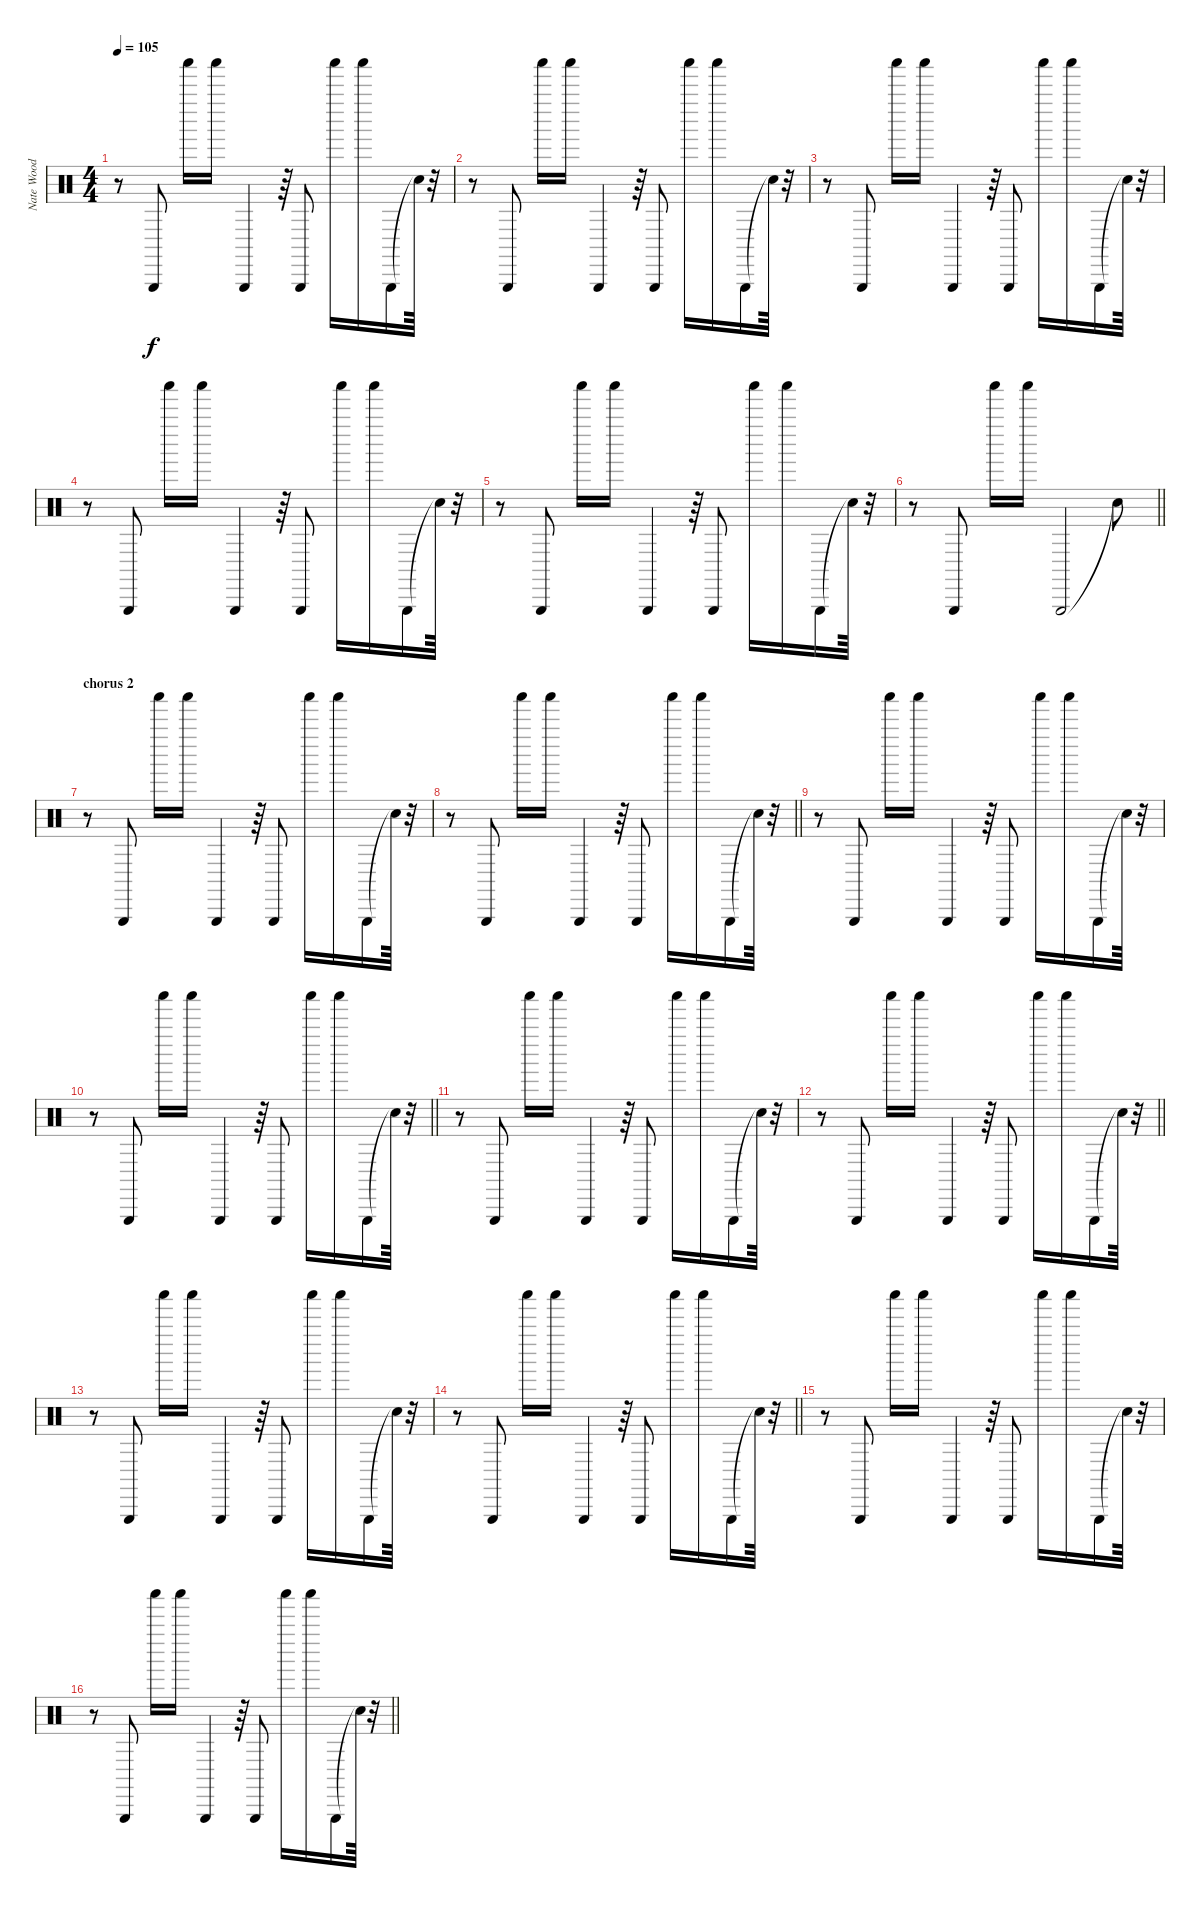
\track ("Nate Wood " "Nate Wood ") {instrument percussion}
\staff {score}
\articulation defaults
\ts (4 4)
\tempo 105
\clef neutral
\ks c
r.8{dy f} "Triangle (hit)".8 "Shaker (hit)".16 "Shaker (hit)".16 "Triangle (hit)".4 r.64 "Triangle (hit)".8 "Shaker (hit)".16 "Shaker (hit)".16 "Triangle (hit)".16 "Snare (hit)"{t}.64 r.32 |
r.8 "Triangle (hit)".8 "Shaker (hit)".16 "Shaker (hit)".16 "Triangle (hit)".4 r.64 "Triangle (hit)".8 "Shaker (hit)".16 "Shaker (hit)".16 "Triangle (hit)".16 "Snare (hit)"{t}.64 r.32 |
r.8 "Triangle (hit)".8 "Shaker (hit)".16 "Shaker (hit)".16 "Triangle (hit)".4 r.64 "Triangle (hit)".8 "Shaker (hit)".16 "Shaker (hit)".16 "Triangle (hit)".16 "Snare (hit)"{t}.64 r.32 |
r.8 "Triangle (hit)".8 "Shaker (hit)".16 "Shaker (hit)".16 "Triangle (hit)".4 r.64 "Triangle (hit)".8 "Shaker (hit)".16 "Shaker (hit)".16 "Triangle (hit)".16 "Snare (hit)"{t}.64 r.32 |
r.8 "Triangle (hit)".8 "Shaker (hit)".16 "Shaker (hit)".16 "Triangle (hit)".4 r.64 "Triangle (hit)".8 "Shaker (hit)".16 "Shaker (hit)".16 "Triangle (hit)".16 "Snare (hit)"{t}.64 r.32 |
\barLineRight lightlight
r.8 "Triangle (hit)".8 "Shaker (hit)".16 "Shaker (hit)".16 "Triangle (hit)".2 "Snare (hit)"{t}.8 |
\section ("" "chorus 2")
r.8 "Triangle (hit)".8 "Shaker (hit)".16 "Shaker (hit)".16 "Triangle (hit)".4 r.64 "Triangle (hit)".8 "Shaker (hit)".16 "Shaker (hit)".16 "Triangle (hit)".16 "Snare (hit)"{t}.64 r.32 |
\barLineRight lightlight
r.8 "Triangle (hit)".8 "Shaker (hit)".16 "Shaker (hit)".16 "Triangle (hit)".4 r.64 "Triangle (hit)".8 "Shaker (hit)".16 "Shaker (hit)".16 "Triangle (hit)".16 "Snare (hit)"{t}.64 r.32 |
r.8 "Triangle (hit)".8 "Shaker (hit)".16 "Shaker (hit)".16 "Triangle (hit)".4 r.64 "Triangle (hit)".8 "Shaker (hit)".16 "Shaker (hit)".16 "Triangle (hit)".16 "Snare (hit)"{t}.64 r.32 |
\barLineRight lightlight
r.8 "Triangle (hit)".8 "Shaker (hit)".16 "Shaker (hit)".16 "Triangle (hit)".4 r.64 "Triangle (hit)".8 "Shaker (hit)".16 "Shaker (hit)".16 "Triangle (hit)".16 "Snare (hit)"{t}.64 r.32 |
r.8 "Triangle (hit)".8 "Shaker (hit)".16 "Shaker (hit)".16 "Triangle (hit)".4 r.64 "Triangle (hit)".8 "Shaker (hit)".16 "Shaker (hit)".16 "Triangle (hit)".16 "Snare (hit)"{t}.64 r.32 |
\barLineRight lightlight
r.8 "Triangle (hit)".8 "Shaker (hit)".16 "Shaker (hit)".16 "Triangle (hit)".4 r.64 "Triangle (hit)".8 "Shaker (hit)".16 "Shaker (hit)".16 "Triangle (hit)".16 "Snare (hit)"{t}.64 r.32 |
r.8 "Triangle (hit)".8 "Shaker (hit)".16 "Shaker (hit)".16 "Triangle (hit)".4 r.64 "Triangle (hit)".8 "Shaker (hit)".16 "Shaker (hit)".16 "Triangle (hit)".16 "Snare (hit)"{t}.64 r.32 |
\barLineRight lightlight
r.8 "Triangle (hit)".8 "Shaker (hit)".16 "Shaker (hit)".16 "Triangle (hit)".4 r.64 "Triangle (hit)".8 "Shaker (hit)".16 "Shaker (hit)".16 "Triangle (hit)".16 "Snare (hit)"{t}.64 r.32 |
r.8 "Triangle (hit)".8 "Shaker (hit)".16 "Shaker (hit)".16 "Triangle (hit)".4 r.64 "Triangle (hit)".8 "Shaker (hit)".16 "Shaker (hit)".16 "Triangle (hit)".16 "Snare (hit)"{t}.64 r.32 |
\barLineRight lightlight
r.8 "Triangle (hit)".8 "Shaker (hit)".16 "Shaker (hit)".16 "Triangle (hit)".4 r.64 "Triangle (hit)".8 "Shaker (hit)".16 "Shaker (hit)".16 "Triangle (hit)".16 "Snare (hit)"{t}.64 r.32
